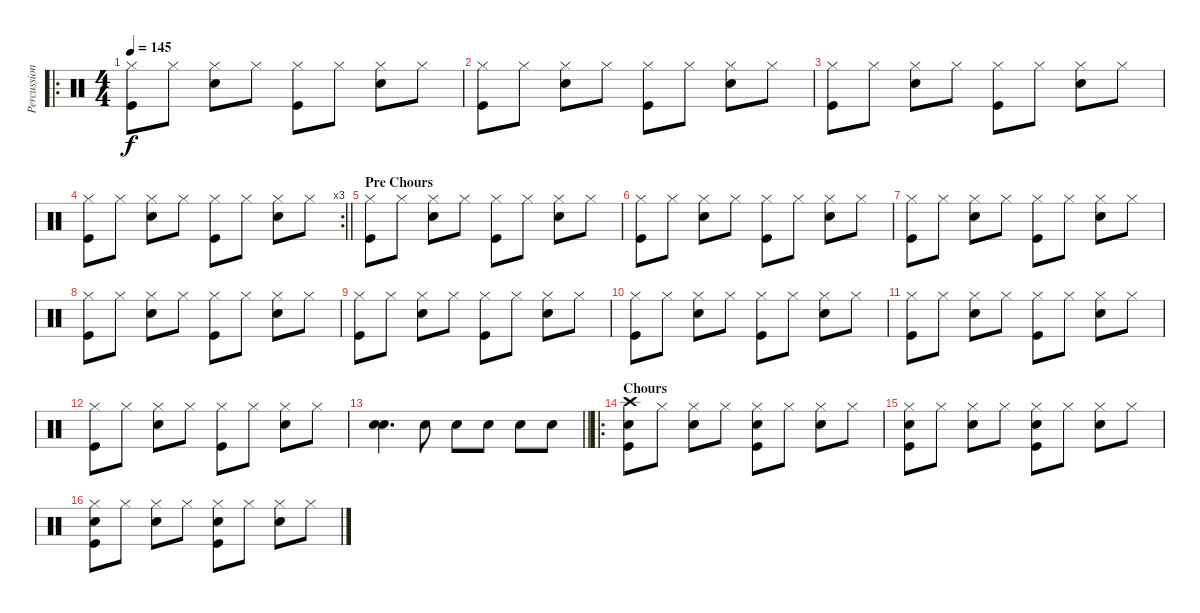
\track ("Percussion" "Percussion") {instrument percussion}
\staff {score}
\articulation defaults
\ro
\ts (4 4)
\tempo 145
\clef neutral
\ks c
("Hi-Hat (closed)" "Kick (hit)").8{dy f} "Hi-Hat (closed)".8 ("Hi-Hat (closed)" "Snare (hit) 2").8 "Hi-Hat (closed)".8 ("Hi-Hat (closed)" "Kick (hit)").8 "Hi-Hat (closed)".8 ("Hi-Hat (closed)" "Electric Snare (hit)").8 "Hi-Hat (closed)".8 |
("Hi-Hat (closed)" "Kick (hit)").8 "Hi-Hat (closed)".8 ("Hi-Hat (closed)" "Snare (hit) 2").8 "Hi-Hat (closed)".8 ("Hi-Hat (closed)" "Kick (hit)").8 "Hi-Hat (closed)".8 ("Hi-Hat (closed)" "Electric Snare (hit)").8 "Hi-Hat (closed)".8 |
("Hi-Hat (closed)" "Kick (hit)").8 "Hi-Hat (closed)".8 ("Hi-Hat (closed)" "Snare (hit) 2").8 "Hi-Hat (closed)".8 ("Hi-Hat (closed)" "Kick (hit)").8 "Hi-Hat (closed)".8 ("Hi-Hat (closed)" "Electric Snare (hit)").8 "Hi-Hat (closed)".8 |
\rc 3
\barLineRight lightlight
("Hi-Hat (closed)" "Kick (hit)").8 "Hi-Hat (closed)".8 ("Hi-Hat (closed)" "Snare (hit) 2").8 "Hi-Hat (closed)".8 ("Hi-Hat (closed)" "Kick (hit)").8 "Hi-Hat (closed)".8 ("Hi-Hat (closed)" "Electric Snare (hit)").8 "Hi-Hat (closed)".8 |
\section ("" "Pre Chours")
("Hi-Hat (closed)" "Kick (hit)").8 "Hi-Hat (closed)".8 ("Hi-Hat (closed)" "Snare (hit) 2").8 "Hi-Hat (closed)".8 ("Hi-Hat (closed)" "Kick (hit)").8 "Hi-Hat (closed)".8 ("Hi-Hat (closed)" "Electric Snare (hit)").8 "Hi-Hat (closed)".8 |
("Hi-Hat (closed)" "Kick (hit)").8 "Hi-Hat (closed)".8 ("Hi-Hat (closed)" "Snare (hit) 2").8 "Hi-Hat (closed)".8 ("Hi-Hat (closed)" "Kick (hit)").8 "Hi-Hat (closed)".8 ("Hi-Hat (closed)" "Electric Snare (hit)").8 "Hi-Hat (closed)".8 |
("Hi-Hat (closed)" "Kick (hit)").8 "Hi-Hat (closed)".8 ("Hi-Hat (closed)" "Snare (hit) 2").8 "Hi-Hat (closed)".8 ("Hi-Hat (closed)" "Kick (hit)").8 "Hi-Hat (closed)".8 ("Hi-Hat (closed)" "Electric Snare (hit)").8 "Hi-Hat (closed)".8 |
("Hi-Hat (closed)" "Kick (hit)").8 "Hi-Hat (closed)".8 ("Hi-Hat (closed)" "Snare (hit) 2").8 "Hi-Hat (closed)".8 ("Hi-Hat (closed)" "Kick (hit)").8 "Hi-Hat (closed)".8 ("Hi-Hat (closed)" "Electric Snare (hit)").8 "Hi-Hat (closed)".8 |
("Hi-Hat (closed)" "Kick (hit)").8 "Hi-Hat (closed)".8 ("Hi-Hat (closed)" "Snare (hit) 2").8 "Hi-Hat (closed)".8 ("Hi-Hat (closed)" "Kick (hit)").8 "Hi-Hat (closed)".8 ("Hi-Hat (closed)" "Electric Snare (hit)").8 "Hi-Hat (closed)".8 |
("Hi-Hat (closed)" "Kick (hit)").8 "Hi-Hat (closed)".8 ("Hi-Hat (closed)" "Snare (hit) 2").8 "Hi-Hat (closed)".8 ("Hi-Hat (closed)" "Kick (hit)").8 "Hi-Hat (closed)".8 ("Hi-Hat (closed)" "Electric Snare (hit)").8 "Hi-Hat (closed)".8 |
("Hi-Hat (closed)" "Kick (hit)").8 "Hi-Hat (closed)".8 ("Hi-Hat (closed)" "Snare (hit) 2").8 "Hi-Hat (closed)".8 ("Hi-Hat (closed)" "Kick (hit)").8 "Hi-Hat (closed)".8 ("Hi-Hat (closed)" "Electric Snare (hit)").8 "Hi-Hat (closed)".8 |
("Hi-Hat (closed)" "Kick (hit)").8 "Hi-Hat (closed)".8 ("Hi-Hat (closed)" "Snare (hit) 2").8 "Hi-Hat (closed)".8 ("Hi-Hat (closed)" "Kick (hit)").8 "Hi-Hat (closed)".8 ("Hi-Hat (closed)" "Electric Snare (hit)").8 "Hi-Hat (closed)".8 |
\barLineRight lightlight
("Electric Snare (hit)" "Electric Snare (hit)").4{d} "Electric Snare (hit)".8 "Electric Snare (hit)".8 "Electric Snare (hit)".8 "Electric Snare (hit)".8 "Electric Snare (hit)".8 |
\ro
\section ("" "Chours")
("Electric Snare (hit)" "Kick (hit)" "Crash high (hit)").8 "Hi-Hat (closed)".8 ("Hi-Hat (closed)" "Electric Snare (hit)").8 "Hi-Hat (closed)".8 ("Hi-Hat (closed)" "Kick (hit)" "Electric Snare (hit)").8 "Hi-Hat (closed)".8 ("Hi-Hat (closed)" "Electric Snare (hit)").8 "Hi-Hat (closed)".8 |
("Electric Snare (hit)" "Kick (hit)" "Hi-Hat (closed)").8 "Hi-Hat (closed)".8 ("Hi-Hat (closed)" "Electric Snare (hit)").8 "Hi-Hat (closed)".8 ("Hi-Hat (closed)" "Kick (hit)" "Electric Snare (hit)").8 "Hi-Hat (closed)".8 ("Hi-Hat (closed)" "Electric Snare (hit)").8 "Hi-Hat (closed)".8 |
("Electric Snare (hit)" "Kick (hit)" "Hi-Hat (closed)").8 "Hi-Hat (closed)".8 ("Hi-Hat (closed)" "Electric Snare (hit)").8 "Hi-Hat (closed)".8 ("Hi-Hat (closed)" "Kick (hit)" "Electric Snare (hit)").8 "Hi-Hat (closed)".8 ("Hi-Hat (closed)" "Electric Snare (hit)").8 "Hi-Hat (closed)".8
